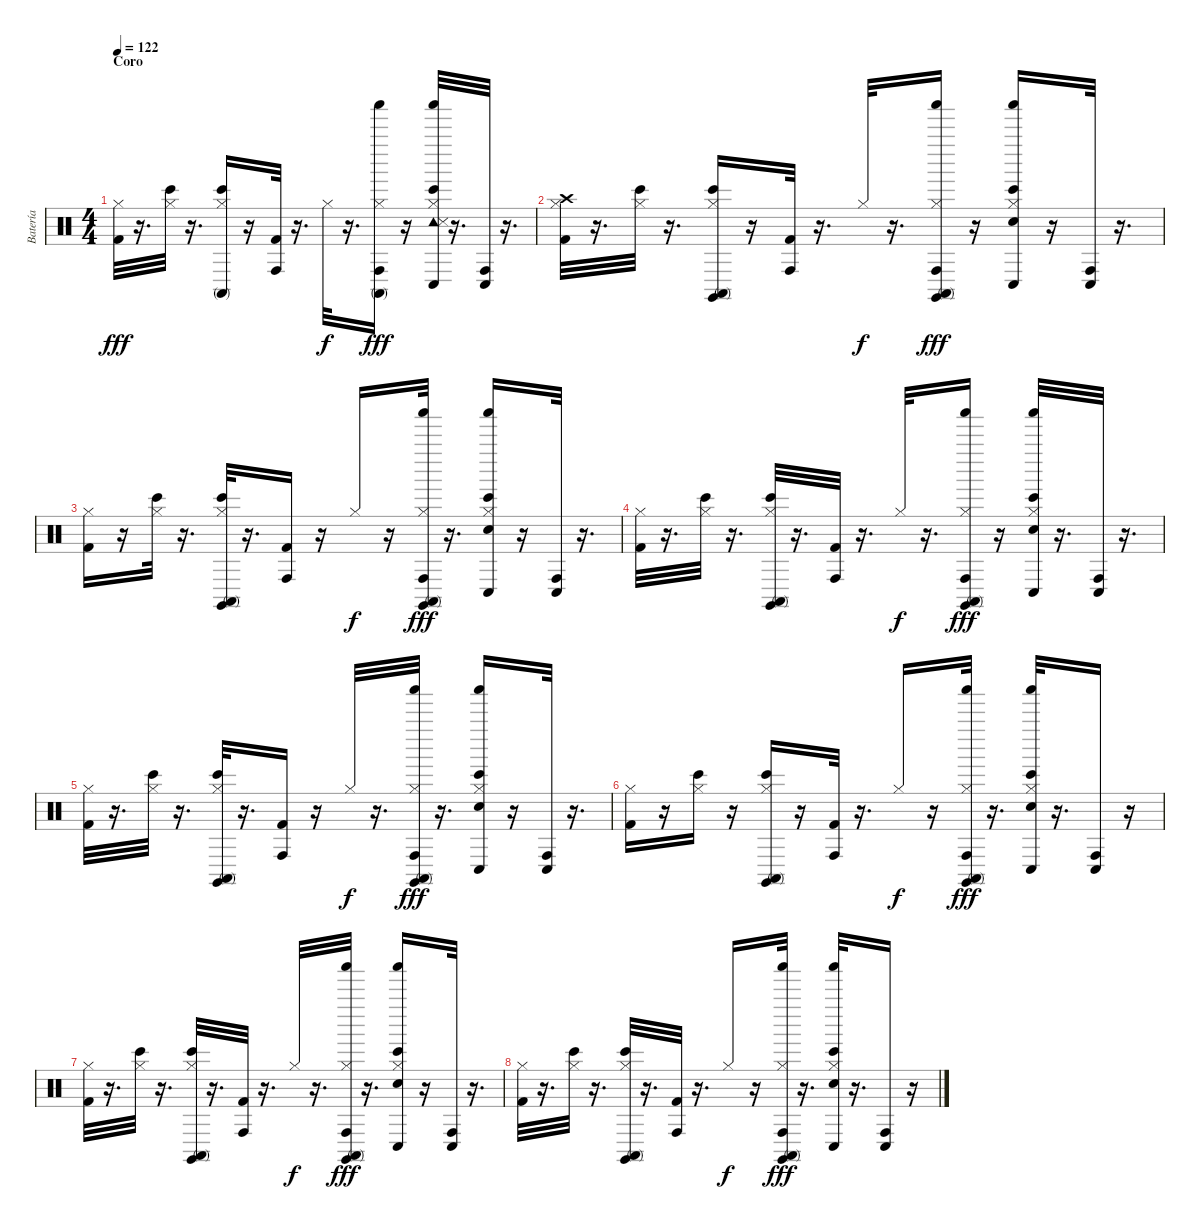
\track ("Batería" "Batería") {instrument percussion}
\staff {score}
\articulation defaults
\ts (4 4)
\section ("" "Coro")
\tempo 122
\clef neutral
\ks c
("Hi-Hat (closed)" "Kick (hit) 2").32{dy fff} r.16{d} ("Bongo High (hit)" "Hi-Hat (closed)").32 r.16{d} ("Bongo High (hit)" "Conga high (mute)" "Hi-Hat (closed)").16 r.16 ("Conga high (hit)" "Kick (hit) 2").32 r.16{d} "Hi-Hat (closed)".32{dy f} r.16{d} ("Conga high (hit)" "Conga high (mute)" "Shaker (hit)" "Hi-Hat (closed)").16{dy fff} r.16 ("Tambourine (hit)" "Snare (side stick) 3" "Bongo High (hit)" "Conga low (hit)" "Shaker (hit)" "Hi-Hat (closed)").32 r.16{d} ("Conga high (hit)" "Conga low (hit)").32 r.16{d} |
("Hi-Hat (closed)" "Kick (hit) 2" "Crash high (hit)").32 r.16{d} ("Bongo High (hit)" "Hi-Hat (closed)").32 r.16{d} ("Claves (hit)" "Bongo High (hit)" "Conga high (mute)" "Hi-Hat (closed)").16 r.16 ("Conga high (hit)" "Kick (hit) 2").32 r.16{d} "Hi-Hat (closed)".32{dy f} r.16{d} ("Claves (hit)" "Conga high (hit)" "Conga high (mute)" "Shaker (hit)" "Hi-Hat (closed)").16{dy fff} r.16 ("Snare (hit) 2" "Bongo High (hit)" "Conga low (hit)" "Shaker (hit)" "Hi-Hat (closed)").16 r.16 ("Conga high (hit)" "Conga low (hit)").32 r.16{d} |
("Hi-Hat (closed)" "Kick (hit) 2").16 r.16 ("Bongo High (hit)" "Hi-Hat (closed)").32 r.16{d} ("Claves (hit)" "Bongo High (hit)" "Conga high (mute)" "Hi-Hat (closed)").32 r.16{d} ("Conga high (hit)" "Kick (hit) 2").16 r.16 "Hi-Hat (closed)".16{dy f} r.16 ("Claves (hit)" "Conga high (hit)" "Conga high (mute)" "Shaker (hit)" "Hi-Hat (closed)").32{dy fff} r.16{d} ("Snare (hit) 2" "Bongo High (hit)" "Conga low (hit)" "Shaker (hit)" "Hi-Hat (closed)").16 r.16 ("Conga high (hit)" "Conga low (hit)").32 r.16{d} |
("Hi-Hat (closed)" "Kick (hit) 2").32 r.16{d} ("Bongo High (hit)" "Hi-Hat (closed)").32 r.16{d} ("Claves (hit)" "Bongo High (hit)" "Conga high (mute)" "Hi-Hat (closed)").32 r.16{d} ("Conga high (hit)" "Kick (hit) 2").32 r.16{d} "Hi-Hat (closed)".32{dy f} r.16{d} ("Claves (hit)" "Conga high (hit)" "Conga high (mute)" "Shaker (hit)" "Hi-Hat (closed)").16{dy fff} r.16 ("Snare (hit) 2" "Bongo High (hit)" "Conga low (hit)" "Shaker (hit)" "Hi-Hat (closed)").32 r.16{d} ("Conga high (hit)" "Conga low (hit)").32 r.16{d} |
("Hi-Hat (closed)" "Kick (hit) 2").32 r.16{d} ("Bongo High (hit)" "Hi-Hat (closed)").32 r.16{d} ("Claves (hit)" "Bongo High (hit)" "Conga high (mute)" "Hi-Hat (closed)").32 r.16{d} ("Conga high (hit)" "Kick (hit) 2").16 r.16 "Hi-Hat (closed)".32{dy f} r.16{d} ("Claves (hit)" "Conga high (hit)" "Conga high (mute)" "Shaker (hit)" "Hi-Hat (closed)").32{dy fff} r.16{d} ("Snare (hit) 2" "Bongo High (hit)" "Conga low (hit)" "Shaker (hit)" "Hi-Hat (closed)").16 r.16 ("Conga high (hit)" "Conga low (hit)").32 r.16{d} |
("Hi-Hat (closed)" "Kick (hit) 2").16 r.16 ("Bongo High (hit)" "Hi-Hat (closed)").16 r.16 ("Claves (hit)" "Bongo High (hit)" "Conga high (mute)" "Hi-Hat (closed)").16 r.16 ("Conga high (hit)" "Kick (hit) 2").32 r.16{d} "Hi-Hat (closed)".16{dy f} r.16 ("Claves (hit)" "Conga high (hit)" "Conga high (mute)" "Shaker (hit)" "Hi-Hat (closed)").32{dy fff} r.16{d} ("Snare (hit) 2" "Bongo High (hit)" "Conga low (hit)" "Shaker (hit)" "Hi-Hat (closed)").32 r.16{d} ("Conga high (hit)" "Conga low (hit)").16 r.16 |
("Hi-Hat (closed)" "Kick (hit) 2").32 r.16{d} ("Bongo High (hit)" "Hi-Hat (closed)").32 r.16{d} ("Claves (hit)" "Bongo High (hit)" "Conga high (mute)" "Hi-Hat (closed)").32 r.16{d} ("Conga high (hit)" "Kick (hit) 2").32 r.16{d} "Hi-Hat (closed)".32{dy f} r.16{d} ("Claves (hit)" "Conga high (hit)" "Conga high (mute)" "Shaker (hit)" "Hi-Hat (closed)").32{dy fff} r.16{d} ("Snare (hit) 2" "Bongo High (hit)" "Conga low (hit)" "Shaker (hit)" "Hi-Hat (closed)").16 r.16 ("Conga high (hit)" "Conga low (hit)").32 r.16{d} |
("Hi-Hat (closed)" "Kick (hit) 2").32 r.16{d} ("Bongo High (hit)" "Hi-Hat (closed)").32 r.16{d} ("Claves (hit)" "Bongo High (hit)" "Conga high (mute)" "Hi-Hat (closed)").32 r.16{d} ("Conga high (hit)" "Kick (hit) 2").32 r.16{d} "Hi-Hat (closed)".16{dy f} r.16 ("Claves (hit)" "Conga high (hit)" "Conga high (mute)" "Shaker (hit)" "Hi-Hat (closed)").32{dy fff} r.16{d} ("Snare (hit) 2" "Bongo High (hit)" "Conga low (hit)" "Shaker (hit)" "Hi-Hat (closed)").32 r.16{d} ("Conga high (hit)" "Conga low (hit)").16 r.16
